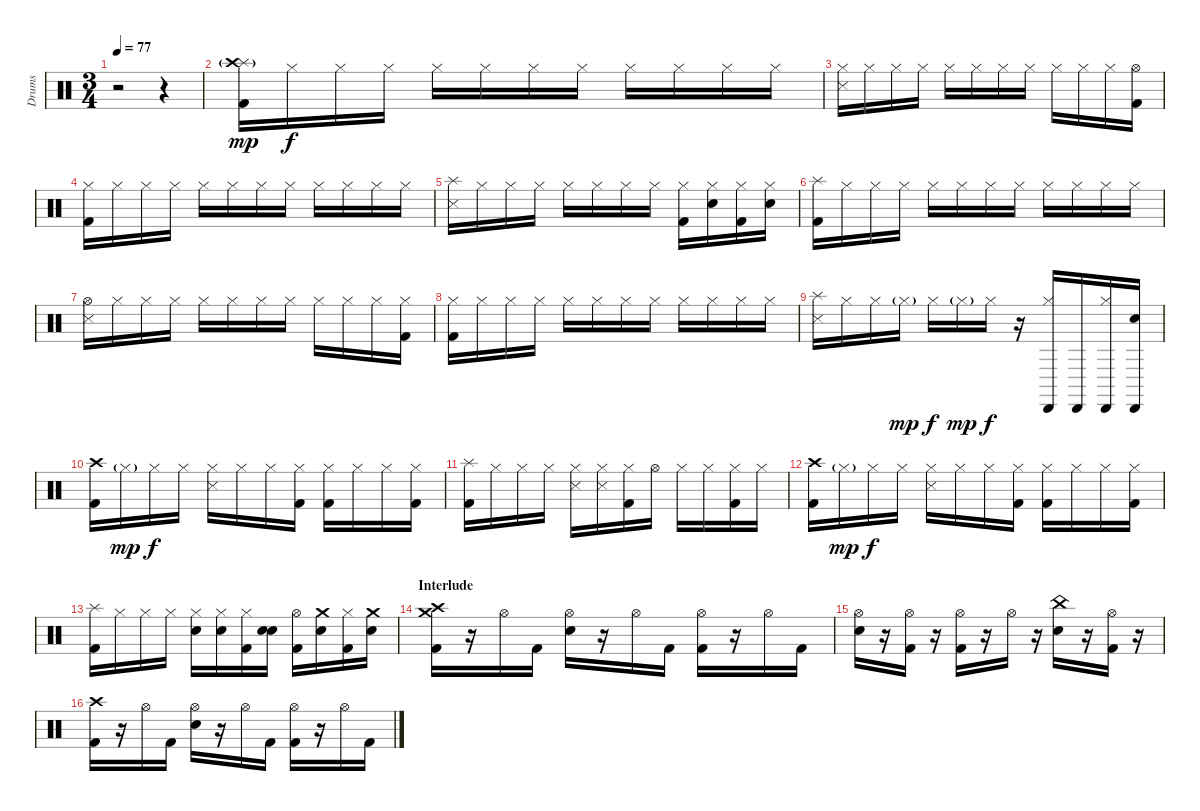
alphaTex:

\track ("Drums" "Drums") {instrument percussion}
\staff {score}
\articulation defaults
\ts (3 4)
\tempo 77
\clef neutral
\ks c
r.2{dy f} r.4 |
("Splash (hit)" "Crash high (hit)"{g} "Kick (hit) 2").16{dy mp} "Hi-Hat (closed)".16{dy f} "Hi-Hat (closed)".16 "Hi-Hat (closed)".16 "Hi-Hat (closed)".16 "Hi-Hat (closed)".16 "Hi-Hat (closed)".16 "Hi-Hat (closed)".16 "Hi-Hat (closed)".16 "Hi-Hat (closed)".16 "Hi-Hat (closed)".16 "Hi-Hat (closed)".16 |
("Hi-Hat (closed)" "Snare (side stick) 3").16 "Hi-Hat (closed)".16 "Hi-Hat (closed)".16 "Hi-Hat (closed)".16 "Hi-Hat (closed)".16 "Hi-Hat (closed)".16 "Hi-Hat (closed)".16 "Hi-Hat (closed)".16 "Hi-Hat (closed)".16 "Hi-Hat (closed)".16 "Hi-Hat (closed)".16 ("Hi-Hat (open)" "Kick (hit) 2").16 |
("Hi-Hat (closed)" "Kick (hit) 2").16 "Hi-Hat (closed)".16 "Hi-Hat (closed)".16 "Hi-Hat (closed)".16 "Hi-Hat (closed)".16 "Hi-Hat (closed)".16 "Hi-Hat (closed)".16 "Hi-Hat (closed)".16 "Hi-Hat (closed)".16 "Hi-Hat (closed)".16 "Hi-Hat (closed)".16 "Hi-Hat (closed)".16 |
("Splash (hit)" "Snare (side stick) 3").16 "Hi-Hat (closed)".16 "Hi-Hat (closed)".16 "Hi-Hat (closed)".16 "Hi-Hat (closed)".16 "Hi-Hat (closed)".16 "Hi-Hat (closed)".16 "Hi-Hat (closed)".16 ("Hi-Hat (closed)" "Kick (hit) 2").16 ("Hi-Hat (closed)" "Snare (hit) 2").16 ("Hi-Hat (closed)" "Kick (hit) 2").16 ("Hi-Hat (closed)" "Snare (hit) 2").16 |
("Splash (hit)" "Kick (hit) 2").16 "Hi-Hat (closed)".16 "Hi-Hat (closed)".16 "Hi-Hat (closed)".16 "Hi-Hat (closed)".16 "Hi-Hat (closed)".16 "Hi-Hat (closed)".16 "Hi-Hat (closed)".16 "Hi-Hat (closed)".16 "Hi-Hat (closed)".16 "Hi-Hat (closed)".16 "Hi-Hat (closed)".16 |
("Hi-Hat (open)" "Snare (side stick) 3").16 "Hi-Hat (closed)".16 "Hi-Hat (closed)".16 "Hi-Hat (closed)".16 "Hi-Hat (closed)".16 "Hi-Hat (closed)".16 "Hi-Hat (closed)".16 "Hi-Hat (closed)".16 "Hi-Hat (closed)".16 "Hi-Hat (closed)".16 "Hi-Hat (closed)".16 ("Hi-Hat (closed)" "Kick (hit) 2").16 |
("Hi-Hat (closed)" "Kick (hit) 2").16 "Hi-Hat (closed)".16 "Hi-Hat (closed)".16 "Hi-Hat (closed)".16 "Hi-Hat (closed)".16 "Hi-Hat (closed)".16 "Hi-Hat (closed)".16 "Hi-Hat (closed)".16 "Hi-Hat (closed)".16 "Hi-Hat (closed)".16 "Hi-Hat (closed)".16 "Hi-Hat (closed)".16 |
("Splash (hit)" "Snare (side stick) 3").16 "Hi-Hat (closed)".16 "Hi-Hat (closed)".16 "Hi-Hat (closed)"{g}.16{dy mp} "Hi-Hat (closed)".16{dy f} "Hi-Hat (closed)"{g}.16{dy mp} "Hi-Hat (closed)".16{dy f} r.16 ("Cabasa (hit)" "Hi-Hat (closed)").16 "Cabasa (hit)".16 ("Cabasa (hit)" "Hi-Hat (closed)").16 ("Cabasa (hit)" "Electric Snare (hit)").16 |
("Crash high (hit)" "Kick (hit) 2").16 "Hi-Hat (closed)"{g}.16{dy mp} "Hi-Hat (closed)".16{dy f} "Hi-Hat (closed)".16 ("Hi-Hat (closed)" "Snare (side stick) 3").16 "Hi-Hat (closed)".16 "Hi-Hat (closed)".16 ("Hi-Hat (closed)" "Kick (hit) 2").16 ("Hi-Hat (closed)" "Kick (hit) 2").16 "Hi-Hat (closed)".16 "Hi-Hat (closed)".16 ("Hi-Hat (closed)" "Kick (hit) 2").16 |
("Splash (hit)" "Kick (hit) 2").16 "Hi-Hat (closed)".16 "Hi-Hat (closed)".16 "Hi-Hat (closed)".16 ("Hi-Hat (closed)" "Snare (side stick) 3").16 ("Hi-Hat (closed)" "Snare (side stick) 3").16 ("Hi-Hat (closed)" "Kick (hit) 2").16 "Hi-Hat (open)".16 "Hi-Hat (closed)".16 "Hi-Hat (closed)".16 ("Hi-Hat (closed)" "Kick (hit) 2").16 "Hi-Hat (closed)".16 |
("Crash high (hit)" "Kick (hit) 2").16 "Hi-Hat (closed)"{g}.16{dy mp} "Hi-Hat (closed)".16{dy f} "Hi-Hat (closed)".16 ("Hi-Hat (closed)" "Snare (side stick) 3").16 "Hi-Hat (closed)".16 "Hi-Hat (closed)".16 ("Hi-Hat (closed)" "Kick (hit) 2").16 ("Hi-Hat (closed)" "Kick (hit) 2").16 "Hi-Hat (closed)".16 "Hi-Hat (closed)".16 ("Hi-Hat (closed)" "Kick (hit) 2").16 |
("Splash (hit)" "Kick (hit) 2").16 "Hi-Hat (closed)".16 "Hi-Hat (closed)".16 "Hi-Hat (closed)".16 ("Hi-Hat (closed)" "Electric Snare (hit)").16 ("Hi-Hat (closed)" "Electric Snare (hit)").16 ("Hi-Hat (closed)" "Kick (hit) 2").16 ("Electric Snare (hit)" "Electric Snare (hit)").16 ("Hi-Hat (open)" "Kick (hit) 2").16 ("Crash medium (hit)" "Electric Snare (hit)").16 ("Hi-Hat (closed)" "Kick (hit) 2").16 ("Crash medium (hit)" "Electric Snare (hit)").16 |
\section ("" "Interlude")
("Crash high (hit)" "Crash medium (hit)" "Kick (hit) 2").16 r.16 "Hi-Hat (open)".16 "Kick (hit) 2".16 ("Hi-Hat (open)" "Electric Snare (hit)").16 r.16 "Hi-Hat (open)".16 "Kick (hit) 2".16 ("Hi-Hat (open)" "Kick (hit) 2").16 r.16 "Hi-Hat (open)".16 "Kick (hit) 2".16 |
("Hi-Hat (open)" "Electric Snare (hit)").16 r.16 ("Hi-Hat (open)" "Kick (hit) 2").16 r.16 ("Hi-Hat (open)" "Kick (hit) 2").16 r.16 "Hi-Hat (open)".16 r.16 ("China (hit)" "Electric Snare (hit)").16 r.16 ("Hi-Hat (open)" "Kick (hit) 2").16 r.16 |
("Crash high (hit)" "Kick (hit) 2").16 r.16 "Hi-Hat (open)".16 "Kick (hit) 2".16 ("Hi-Hat (open)" "Electric Snare (hit)").16 r.16 "Hi-Hat (open)".16 "Kick (hit) 2".16 ("Hi-Hat (open)" "Kick (hit) 2").16 r.16 "Hi-Hat (open)".16 "Kick (hit) 2".16
